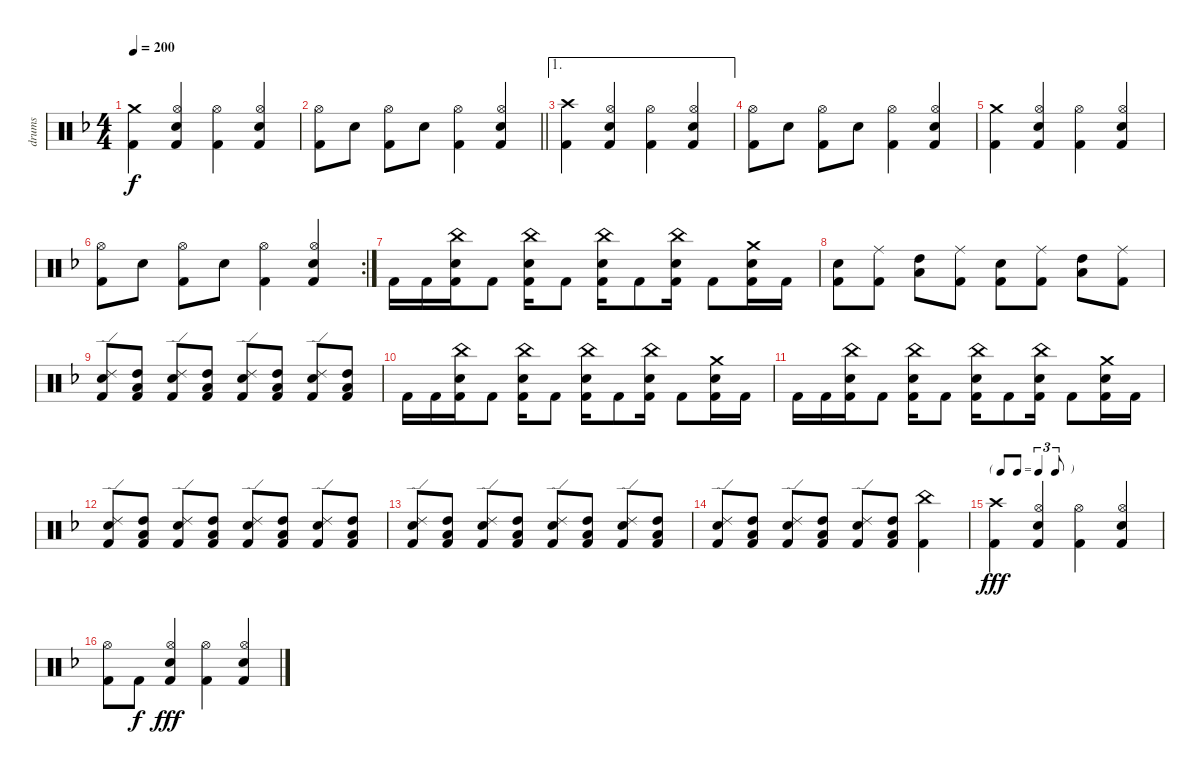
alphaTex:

\track ("drums" "drums") {instrument percussion}
\staff {score}
\articulation defaults
\ts (4 4)
\tempo 200
\clef neutral
\ks dminor
("Crash medium (hit)" "Kick (hit) 2").4{dy f} ("Hi-Hat (open)" "Electric Snare (hit)" "Kick (hit) 2").4 ("Hi-Hat (open)" "Kick (hit) 2").4 ("Hi-Hat (open)" "Electric Snare (hit)" "Kick (hit) 2").4 |
\barLineRight lightlight
("Hi-Hat (open)" "Kick (hit) 2").8 "Electric Snare (hit)".8 ("Hi-Hat (open)" "Kick (hit) 2").8 "Electric Snare (hit)".8 ("Hi-Hat (open)" "Kick (hit) 2").4 ("Hi-Hat (open)" "Electric Snare (hit)" "Kick (hit) 2").4 |
\ae 1
("Crash high (hit)" "Kick (hit) 2").4 ("Hi-Hat (open)" "Electric Snare (hit)" "Kick (hit) 2").4 ("Hi-Hat (open)" "Kick (hit) 2").4 ("Hi-Hat (open)" "Electric Snare (hit)" "Kick (hit) 2").4 |
("Hi-Hat (open)" "Kick (hit) 2").8 "Electric Snare (hit)".8 ("Hi-Hat (open)" "Kick (hit) 2").8 "Electric Snare (hit)".8 ("Hi-Hat (open)" "Kick (hit) 2").4 ("Hi-Hat (open)" "Electric Snare (hit)" "Kick (hit) 2").4 |
("Crash medium (hit)" "Kick (hit) 2").4 ("Hi-Hat (open)" "Electric Snare (hit)" "Kick (hit) 2").4 ("Hi-Hat (open)" "Kick (hit) 2").4 ("Hi-Hat (open)" "Electric Snare (hit)" "Kick (hit) 2").4 |
\rc 2
("Hi-Hat (open)" "Kick (hit) 2").8 "Electric Snare (hit)".8 ("Hi-Hat (open)" "Kick (hit) 2").8 "Electric Snare (hit)".8 ("Hi-Hat (open)" "Kick (hit) 2").4 ("Hi-Hat (open)" "Electric Snare (hit)" "Kick (hit) 2").4 |
"Kick (hit) 2".16 "Kick (hit) 2".16 ("China (hit)" "Electric Snare (hit)" "Kick (hit) 2").16 "Kick (hit) 2".8 ("China (hit)" "Electric Snare (hit)" "Kick (hit) 2").16 "Kick (hit) 2".8 ("China (hit)" "Electric Snare (hit)" "Kick (hit) 2").16 "Kick (hit) 2".8 ("China (hit)" "Electric Snare (hit)" "Kick (hit) 2").16 "Kick (hit) 2".8 ("Crash medium (hit)" "Electric Snare (hit)" "Kick (hit) 2").16 "Kick (hit) 2".16 |
("Electric Snare (hit)" "Kick (hit) 2").8 ("Ride (middle)" "Kick (hit) 2").8 ("High Tom (hit)" "Low Tom (hit)").8 ("Ride (middle)" "Kick (hit) 2").8 ("Electric Snare (hit)" "Kick (hit) 2").8 ("Ride (middle)" "Kick (hit) 2").8 ("High Tom (hit)" "Low Tom (hit)").8 ("Ride (middle)" "Kick (hit) 2").8 |
("Ride (edge) 2" "Electric Snare (hit)" "Kick (hit) 2").8 ("High Tom (hit)" "Low Tom (hit)" "Kick (hit) 2").8 ("Ride (edge) 2" "Electric Snare (hit)" "Kick (hit) 2").8 ("High Tom (hit)" "Low Tom (hit)" "Kick (hit) 2").8 ("Ride (edge) 2" "Electric Snare (hit)" "Kick (hit) 2").8 ("High Tom (hit)" "Low Tom (hit)" "Kick (hit) 2").8 ("Ride (edge) 2" "Electric Snare (hit)" "Kick (hit) 2").8 ("High Tom (hit)" "Low Tom (hit)" "Kick (hit) 2").8 |
"Kick (hit) 2".16 "Kick (hit) 2".16 ("China (hit)" "Electric Snare (hit)" "Kick (hit) 2").16 "Kick (hit) 2".8 ("China (hit)" "Electric Snare (hit)" "Kick (hit) 2").16 "Kick (hit) 2".8 ("China (hit)" "Electric Snare (hit)" "Kick (hit) 2").16 "Kick (hit) 2".8 ("China (hit)" "Electric Snare (hit)" "Kick (hit) 2").16 "Kick (hit) 2".8 ("Crash medium (hit)" "Electric Snare (hit)" "Kick (hit) 2").16 "Kick (hit) 2".16 |
"Kick (hit) 2".16 "Kick (hit) 2".16 ("China (hit)" "Electric Snare (hit)" "Kick (hit) 2").16 "Kick (hit) 2".8 ("China (hit)" "Electric Snare (hit)" "Kick (hit) 2").16 "Kick (hit) 2".8 ("China (hit)" "Electric Snare (hit)" "Kick (hit) 2").16 "Kick (hit) 2".8 ("China (hit)" "Electric Snare (hit)" "Kick (hit) 2").16 "Kick (hit) 2".8 ("Crash medium (hit)" "Electric Snare (hit)" "Kick (hit) 2").16 "Kick (hit) 2".16 |
("Ride (edge) 2" "Electric Snare (hit)" "Kick (hit) 2").8 ("High Tom (hit)" "Low Tom (hit)" "Kick (hit) 2").8 ("Ride (edge) 2" "Electric Snare (hit)" "Kick (hit) 2").8 ("High Tom (hit)" "Low Tom (hit)" "Kick (hit) 2").8 ("Ride (edge) 2" "Electric Snare (hit)" "Kick (hit) 2").8 ("High Tom (hit)" "Low Tom (hit)" "Kick (hit) 2").8 ("Ride (edge) 2" "Electric Snare (hit)" "Kick (hit) 2").8 ("High Tom (hit)" "Low Tom (hit)" "Kick (hit) 2").8 |
("Ride (edge) 2" "Electric Snare (hit)" "Kick (hit) 2").8 ("High Tom (hit)" "Low Tom (hit)" "Kick (hit) 2").8 ("Ride (edge) 2" "Electric Snare (hit)" "Kick (hit) 2").8 ("High Tom (hit)" "Low Tom (hit)" "Kick (hit) 2").8 ("Ride (edge) 2" "Electric Snare (hit)" "Kick (hit) 2").8 ("High Tom (hit)" "Low Tom (hit)" "Kick (hit) 2").8 ("Ride (edge) 2" "Electric Snare (hit)" "Kick (hit) 2").8 ("High Tom (hit)" "Low Tom (hit)" "Kick (hit) 2").8 |
("Ride (edge) 2" "Electric Snare (hit)" "Kick (hit) 2").8 ("High Tom (hit)" "Low Tom (hit)" "Kick (hit) 2").8 ("Ride (edge) 2" "Electric Snare (hit)" "Kick (hit) 2").8 ("High Tom (hit)" "Low Tom (hit)" "Kick (hit) 2").8 ("Ride (edge) 2" "Electric Snare (hit)" "Kick (hit) 2").8 ("High Tom (hit)" "Low Tom (hit)" "Kick (hit) 2").8 ("China (hit)" "Kick (hit) 2").4 |
\tf triplet8th
("Crash high (hit)" "Kick (hit) 2").4{dy fff} ("Hi-Hat (open)" "Electric Snare (hit)" "Kick (hit) 2").4 ("Hi-Hat (open)" "Kick (hit) 2").4 ("Hi-Hat (open)" "Electric Snare (hit)" "Kick (hit) 2").4 |
("Hi-Hat (open)" "Kick (hit) 2").8 "Kick (hit) 2".8{dy f} ("Hi-Hat (open)" "Electric Snare (hit)" "Kick (hit) 2").4{dy fff} ("Hi-Hat (open)" "Kick (hit) 2").4 ("Hi-Hat (open)" "Electric Snare (hit)" "Kick (hit) 2").4
